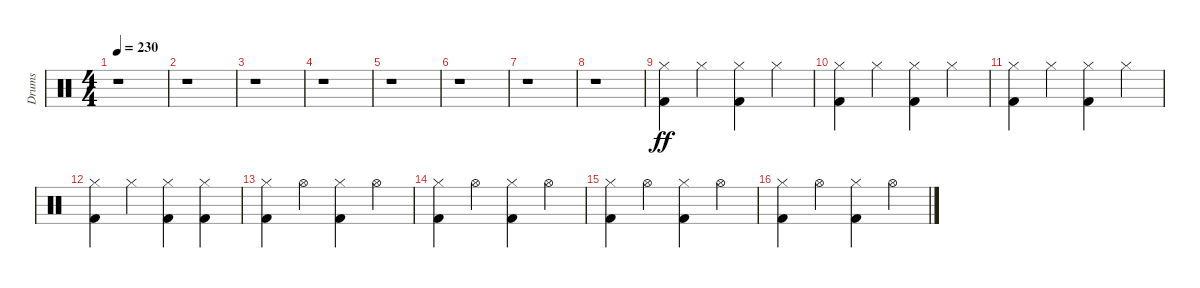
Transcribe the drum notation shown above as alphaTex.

\track ("Drums" "Drums") {instrument percussion}
\staff {score}
\articulation defaults
\ts (4 4)
\tempo 230
\clef neutral
\ks c
r.1{dy ff} |
r.1 |
r.1 |
r.1 |
r.1 |
r.1 |
r.1 |
r.1 |
("Hi-Hat (closed)" "Kick (hit) 2").4 "Hi-Hat (closed)".4 ("Hi-Hat (closed)" "Kick (hit) 2").4 "Hi-Hat (closed)".4 |
("Hi-Hat (closed)" "Kick (hit) 2").4 "Hi-Hat (closed)".4 ("Hi-Hat (closed)" "Kick (hit) 2").4 "Hi-Hat (closed)".4 |
("Hi-Hat (closed)" "Kick (hit) 2").4 "Hi-Hat (closed)".4 ("Hi-Hat (closed)" "Kick (hit) 2").4 "Hi-Hat (closed)".4 |
("Hi-Hat (closed)" "Kick (hit) 2").4 "Hi-Hat (closed)".4 ("Hi-Hat (closed)" "Kick (hit) 2").4 ("Hi-Hat (closed)" "Kick (hit) 2").4 |
("Hi-Hat (closed)" "Kick (hit) 2").4 "Hi-Hat (open)".4 ("Hi-Hat (closed)" "Kick (hit) 2").4 "Hi-Hat (open)".4 |
("Hi-Hat (closed)" "Kick (hit) 2").4 "Hi-Hat (open)".4 ("Hi-Hat (closed)" "Kick (hit) 2").4 "Hi-Hat (open)".4 |
("Hi-Hat (closed)" "Kick (hit) 2").4 "Hi-Hat (open)".4 ("Hi-Hat (closed)" "Kick (hit) 2").4 "Hi-Hat (open)".4 |
("Hi-Hat (closed)" "Kick (hit) 2").4 "Hi-Hat (open)".4 ("Hi-Hat (closed)" "Kick (hit) 2").4 "Hi-Hat (open)".4
